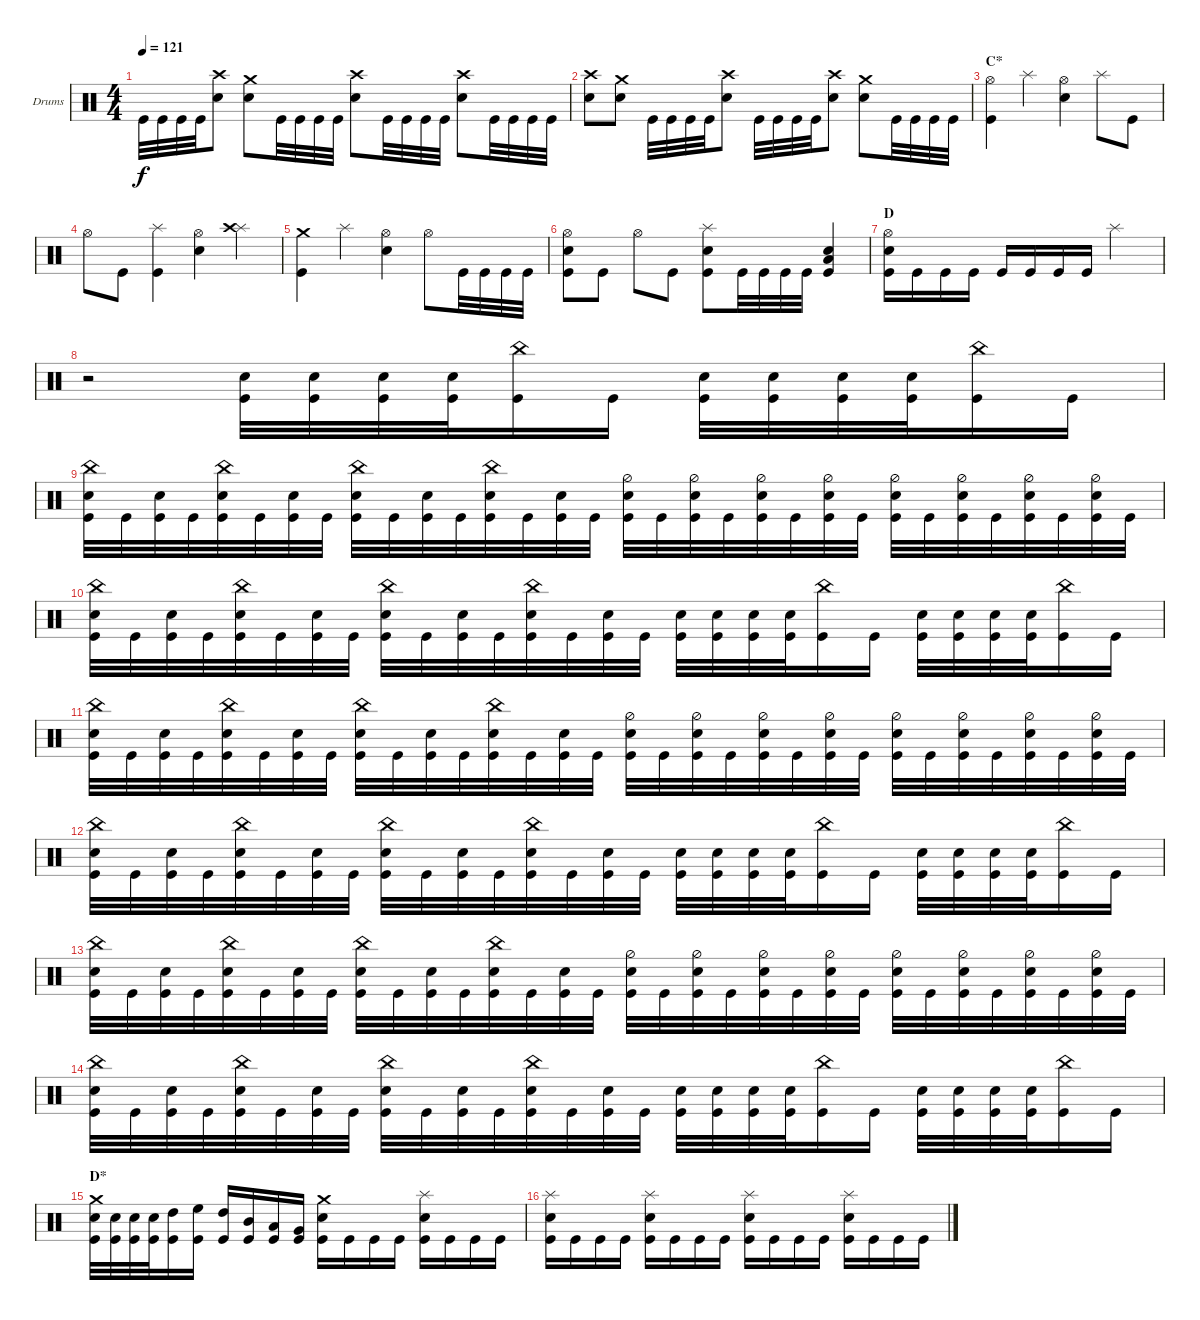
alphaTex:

\bracketExtendMode groupsimilarinstruments
\firstSystemTrackNameOrientation horizontal
\otherSystemsTrackNameOrientation horizontal
\track ("Drumkit" "Drums") {instrument percussion}
\staff {score}
\articulation defaults
\ts (4 4)
\tempo 121
\clef neutral
\ks c "Kick (hit)".32{dy f} "Kick (hit)".32 "Kick (hit)".32 "Kick (hit)".32
("Snare (hit) 2" "Crash high (hit)").8 ("Snare (hit) 2" "Crash medium (hit)").8 "Kick (hit)".32 "Kick (hit)".32 "Kick (hit)".32 "Kick (hit)".32 ("Snare (hit) 2" "Crash high (hit)").8 "Kick (hit)".32 "Kick (hit)".32 "Kick (hit)".32 "Kick (hit)".32 ("Snare (hit) 2" "Crash high (hit)").8 "Kick (hit)".32 "Kick (hit)".32 "Kick (hit)".32 "Kick (hit)".32 |
("Snare (hit) 2" "Crash high (hit)").8 ("Snare (hit) 2" "Crash medium (hit)").8 "Kick (hit)".32 "Kick (hit)".32 "Kick (hit)".32 "Kick (hit)".32 ("Snare (hit) 2" "Crash high (hit)").8 "Kick (hit)".32 "Kick (hit)".32 "Kick (hit)".32 "Kick (hit)".32 ("Snare (hit) 2" "Crash high (hit)").8 ("Snare (hit) 2" "Crash medium (hit)").8 "Kick (hit)".32 "Kick (hit)".32 "Kick (hit)".32 "Kick (hit)".32 |
\section ("" "C*")
("Hi-Hat (open)" "Kick (hit)").4 "Splash (hit)".4 ("Hi-Hat (open)" "Snare (hit) 2").4 "Splash (hit)".8 "Kick (hit)".8 |
"Hi-Hat (open)".8 "Kick (hit)".8 ("Kick (hit)" "Splash (hit)").4 ("Hi-Hat (open)" "Snare (hit) 2").4 ("Splash (hit)" "Crash high (hit)").4 |
("Crash medium (hit)" "Kick (hit)").4 "Splash (hit)".4 ("Hi-Hat (open)" "Snare (hit) 2").4 "Hi-Hat (open)".8 "Kick (hit)".32 "Kick (hit)".32 "Kick (hit)".32 "Kick (hit)".32 |
("Kick (hit)" "Hi-Hat (open)" "Snare (hit) 2").8 "Kick (hit)".8 "Hi-Hat (open)".8 "Kick (hit)".8 ("Kick (hit)" "Snare (hit) 2" "Splash (hit)").8 "Kick (hit)".32 "Kick (hit)".32 "Kick (hit)".32 "Kick (hit)".32 ("Snare (hit) 2" "Low Tom (hit)" "Kick (hit)").4 |
\section ("" "D")
("Kick (hit)" "Snare (hit) 2" "Hi-Hat (open)").16 "Kick (hit)".16 "Kick (hit)".16 "Kick (hit)".16 "Kick (hit)".16 "Kick (hit)".16 "Kick (hit)".16 "Kick (hit)".16 "Splash (hit)".2 |
r.2 ("Snare (hit) 2" "Kick (hit)").32 ("Snare (hit) 2" "Kick (hit)").32 ("Snare (hit) 2" "Kick (hit)").32 ("Snare (hit) 2" "Kick (hit)").32 ("Kick (hit)" "China (hit)").16 "Kick (hit)".16 ("Snare (hit) 2" "Kick (hit)").32 ("Snare (hit) 2" "Kick (hit)").32 ("Snare (hit) 2" "Kick (hit)").32 ("Snare (hit) 2" "Kick (hit)").32 ("Kick (hit)" "China (hit)").16 "Kick (hit)".16 |
("Kick (hit)" "Snare (hit) 2" "China (hit)").32 "Kick (hit)".32 ("Kick (hit)" "Snare (hit) 2").32 "Kick (hit)".32 ("Kick (hit)" "Snare (hit) 2" "China (hit)").32 "Kick (hit)".32 ("Kick (hit)" "Snare (hit) 2").32 "Kick (hit)".32 ("Kick (hit)" "Snare (hit) 2" "China (hit)").32 "Kick (hit)".32 ("Kick (hit)" "Snare (hit) 2").32 "Kick (hit)".32 ("Kick (hit)" "Snare (hit) 2" "China (hit)").32 "Kick (hit)".32 ("Kick (hit)" "Snare (hit) 2").32 "Kick (hit)".32 ("Kick (hit)" "Snare (hit) 2" "Hi-Hat (half)").32 "Kick (hit)".32 ("Kick (hit)" "Snare (hit) 2" "Hi-Hat (half)").32 "Kick (hit)".32 ("Kick (hit)" "Snare (hit) 2" "Hi-Hat (half)").32 "Kick (hit)".32 ("Kick (hit)" "Snare (hit) 2" "Hi-Hat (half)").32 "Kick (hit)".32 ("Kick (hit)" "Snare (hit) 2" "Hi-Hat (half)").32 "Kick (hit)".32 ("Kick (hit)" "Snare (hit) 2" "Hi-Hat (half)").32 "Kick (hit)".32 ("Kick (hit)" "Snare (hit) 2" "Hi-Hat (half)").32 "Kick (hit)".32 ("Kick (hit)" "Snare (hit) 2" "Hi-Hat (half)").32 "Kick (hit)".32 |
("Kick (hit)" "Snare (hit) 2" "China (hit)").32 "Kick (hit)".32 ("Kick (hit)" "Snare (hit) 2").32 "Kick (hit)".32 ("Kick (hit)" "Snare (hit) 2" "China (hit)").32 "Kick (hit)".32 ("Kick (hit)" "Snare (hit) 2").32 "Kick (hit)".32 ("Kick (hit)" "Snare (hit) 2" "China (hit)").32 "Kick (hit)".32 ("Kick (hit)" "Snare (hit) 2").32 "Kick (hit)".32 ("Kick (hit)" "Snare (hit) 2" "China (hit)").32 "Kick (hit)".32 ("Kick (hit)" "Snare (hit) 2").32 "Kick (hit)".32 ("Snare (hit) 2" "Kick (hit)").32 ("Snare (hit) 2" "Kick (hit)").32 ("Snare (hit) 2" "Kick (hit)").32 ("Snare (hit) 2" "Kick (hit)").32 ("Kick (hit)" "China (hit)").16 "Kick (hit)".16 ("Snare (hit) 2" "Kick (hit)").32 ("Snare (hit) 2" "Kick (hit)").32 ("Snare (hit) 2" "Kick (hit)").32 ("Snare (hit) 2" "Kick (hit)").32 ("Kick (hit)" "China (hit)").16 "Kick (hit)".16 |
("Kick (hit)" "Snare (hit) 2" "China (hit)").32 "Kick (hit)".32 ("Kick (hit)" "Snare (hit) 2").32 "Kick (hit)".32 ("Kick (hit)" "Snare (hit) 2" "China (hit)").32 "Kick (hit)".32 ("Kick (hit)" "Snare (hit) 2").32 "Kick (hit)".32 ("Kick (hit)" "Snare (hit) 2" "China (hit)").32 "Kick (hit)".32 ("Kick (hit)" "Snare (hit) 2").32 "Kick (hit)".32 ("Kick (hit)" "Snare (hit) 2" "China (hit)").32 "Kick (hit)".32 ("Kick (hit)" "Snare (hit) 2").32 "Kick (hit)".32 ("Kick (hit)" "Snare (hit) 2" "Hi-Hat (half)").32 "Kick (hit)".32 ("Kick (hit)" "Snare (hit) 2" "Hi-Hat (half)").32 "Kick (hit)".32 ("Kick (hit)" "Snare (hit) 2" "Hi-Hat (half)").32 "Kick (hit)".32 ("Kick (hit)" "Snare (hit) 2" "Hi-Hat (half)").32 "Kick (hit)".32 ("Kick (hit)" "Snare (hit) 2" "Hi-Hat (half)").32 "Kick (hit)".32 ("Kick (hit)" "Snare (hit) 2" "Hi-Hat (half)").32 "Kick (hit)".32 ("Kick (hit)" "Snare (hit) 2" "Hi-Hat (half)").32 "Kick (hit)".32 ("Kick (hit)" "Snare (hit) 2" "Hi-Hat (half)").32 "Kick (hit)".32 |
("Kick (hit)" "Snare (hit) 2" "China (hit)").32 "Kick (hit)".32 ("Kick (hit)" "Snare (hit) 2").32 "Kick (hit)".32 ("Kick (hit)" "Snare (hit) 2" "China (hit)").32 "Kick (hit)".32 ("Kick (hit)" "Snare (hit) 2").32 "Kick (hit)".32 ("Kick (hit)" "Snare (hit) 2" "China (hit)").32 "Kick (hit)".32 ("Kick (hit)" "Snare (hit) 2").32 "Kick (hit)".32 ("Kick (hit)" "Snare (hit) 2" "China (hit)").32 "Kick (hit)".32 ("Kick (hit)" "Snare (hit) 2").32 "Kick (hit)".32 ("Snare (hit) 2" "Kick (hit)").32 ("Snare (hit) 2" "Kick (hit)").32 ("Snare (hit) 2" "Kick (hit)").32 ("Snare (hit) 2" "Kick (hit)").32 ("Kick (hit)" "China (hit)").16 "Kick (hit)".16 ("Snare (hit) 2" "Kick (hit)").32 ("Snare (hit) 2" "Kick (hit)").32 ("Snare (hit) 2" "Kick (hit)").32 ("Snare (hit) 2" "Kick (hit)").32 ("Kick (hit)" "China (hit)").16 "Kick (hit)".16 |
("Kick (hit)" "Snare (hit) 2" "China (hit)").32 "Kick (hit)".32 ("Kick (hit)" "Snare (hit) 2").32 "Kick (hit)".32 ("Kick (hit)" "Snare (hit) 2" "China (hit)").32 "Kick (hit)".32 ("Kick (hit)" "Snare (hit) 2").32 "Kick (hit)".32 ("Kick (hit)" "Snare (hit) 2" "China (hit)").32 "Kick (hit)".32 ("Kick (hit)" "Snare (hit) 2").32 "Kick (hit)".32 ("Kick (hit)" "Snare (hit) 2" "China (hit)").32 "Kick (hit)".32 ("Kick (hit)" "Snare (hit) 2").32 "Kick (hit)".32 ("Kick (hit)" "Snare (hit) 2" "Hi-Hat (half)").32 "Kick (hit)".32 ("Kick (hit)" "Snare (hit) 2" "Hi-Hat (half)").32 "Kick (hit)".32 ("Kick (hit)" "Snare (hit) 2" "Hi-Hat (half)").32 "Kick (hit)".32 ("Kick (hit)" "Snare (hit) 2" "Hi-Hat (half)").32 "Kick (hit)".32 ("Kick (hit)" "Snare (hit) 2" "Hi-Hat (half)").32 "Kick (hit)".32 ("Kick (hit)" "Snare (hit) 2" "Hi-Hat (half)").32 "Kick (hit)".32 ("Kick (hit)" "Snare (hit) 2" "Hi-Hat (half)").32 "Kick (hit)".32 ("Kick (hit)" "Snare (hit) 2" "Hi-Hat (half)").32 "Kick (hit)".32 |
("Kick (hit)" "Snare (hit) 2" "China (hit)").32 "Kick (hit)".32 ("Kick (hit)" "Snare (hit) 2").32 "Kick (hit)".32 ("Kick (hit)" "Snare (hit) 2" "China (hit)").32 "Kick (hit)".32 ("Kick (hit)" "Snare (hit) 2").32 "Kick (hit)".32 ("Kick (hit)" "Snare (hit) 2" "China (hit)").32 "Kick (hit)".32 ("Kick (hit)" "Snare (hit) 2").32 "Kick (hit)".32 ("Kick (hit)" "Snare (hit) 2" "China (hit)").32 "Kick (hit)".32 ("Kick (hit)" "Snare (hit) 2").32 "Kick (hit)".32 ("Snare (hit) 2" "Kick (hit)").32 ("Snare (hit) 2" "Kick (hit)").32 ("Snare (hit) 2" "Kick (hit)").32 ("Snare (hit) 2" "Kick (hit)").32 ("Kick (hit)" "China (hit)").16 "Kick (hit)".16 ("Snare (hit) 2" "Kick (hit)").32 ("Snare (hit) 2" "Kick (hit)").32 ("Snare (hit) 2" "Kick (hit)").32 ("Snare (hit) 2" "Kick (hit)").32 ("Kick (hit)" "China (hit)").16 "Kick (hit)".16 |
\section ("" "D*")
("Snare (hit) 2" "Kick (hit)" "Crash medium (hit)").32 ("Snare (hit) 2" "Kick (hit)").32 ("Snare (hit) 2" "Kick (hit)").32 ("Snare (hit) 2" "Kick (hit)").32 ("Kick (hit)" "High Tom (hit)").16 ("Kick (hit)" "High Floor Tom (hit)").16 ("Kick (hit)" "High Tom (hit)").16 ("Kick (hit)" "Mid Tom (hit)").16 ("Kick (hit)" "Low Tom (hit)").16 ("Kick (hit)" "Very Low Tom (hit)").16 ("Kick (hit)" "Snare (hit) 2" "Crash medium (hit)").16 "Kick (hit)".16 "Kick (hit)".16 "Kick (hit)".16 ("Kick (hit)" "Snare (hit) 2" "Splash (hit)").16 "Kick (hit)".16 "Kick (hit)".16 "Kick (hit)".16 |
("Kick (hit)" "Snare (hit) 2" "Splash (hit)").16 "Kick (hit)".16 "Kick (hit)".16 "Kick (hit)".16 ("Kick (hit)" "Snare (hit) 2" "Splash (hit)").16 "Kick (hit)".16 "Kick (hit)".16 "Kick (hit)".16 ("Kick (hit)" "Snare (hit) 2" "Splash (hit)").16 "Kick (hit)".16 "Kick (hit)".16 "Kick (hit)".16 ("Kick (hit)" "Snare (hit) 2" "Splash (hit)").16 "Kick (hit)".16 "Kick (hit)".16 "Kick (hit)".16
